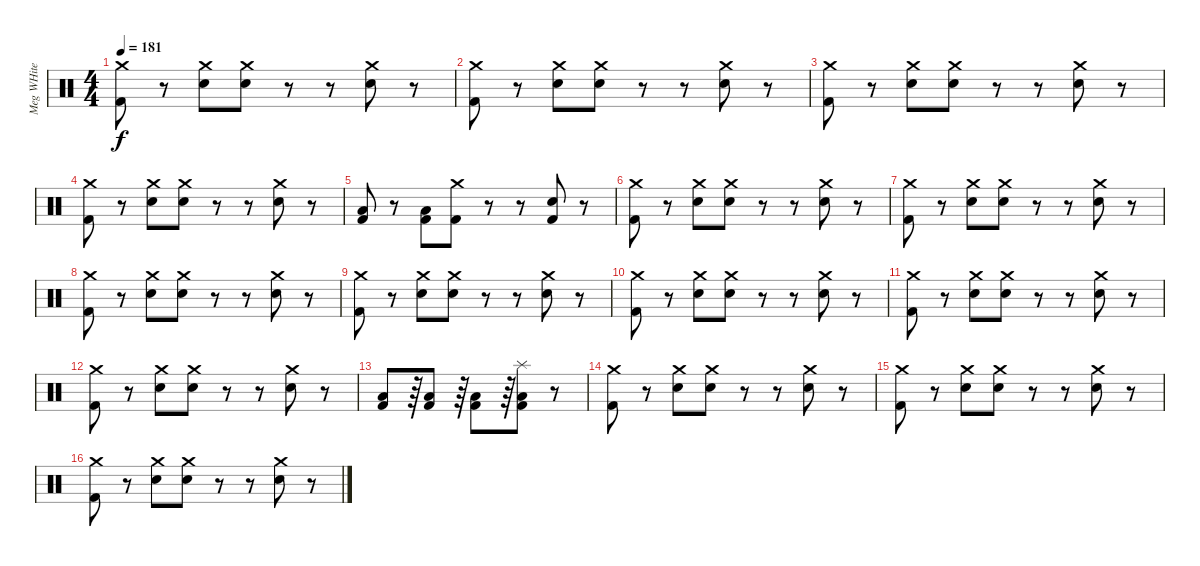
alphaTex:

\track ("Meg WHite" "Meg WHite") {instrument percussion}
\staff {score}
\articulation defaults
\ts (4 4)
\tempo 181
\clef neutral
\ks c
("Crash medium (hit)" "Kick (hit) 2").8{dy f} r.8 ("Crash medium (hit)" "Electric Snare (hit)").8 ("Crash medium (hit)" "Electric Snare (hit)").8 r.8 r.8 ("Crash medium (hit)" "Electric Snare (hit)").8 r.8 |
("Crash medium (hit)" "Kick (hit) 2").8 r.8 ("Crash medium (hit)" "Electric Snare (hit)").8 ("Crash medium (hit)" "Electric Snare (hit)").8 r.8 r.8 ("Crash medium (hit)" "Electric Snare (hit)").8 r.8 |
("Crash medium (hit)" "Kick (hit) 2").8 r.8 ("Crash medium (hit)" "Electric Snare (hit)").8 ("Crash medium (hit)" "Electric Snare (hit)").8 r.8 r.8 ("Crash medium (hit)" "Electric Snare (hit)").8 r.8 |
("Crash medium (hit)" "Kick (hit) 2").8 r.8 ("Crash medium (hit)" "Electric Snare (hit)").8 ("Crash medium (hit)" "Electric Snare (hit)").8 r.8 r.8 ("Crash medium (hit)" "Electric Snare (hit)").8 r.8 |
("Kick (hit) 2" "Low Floor Tom (hit)").8 r.8 ("Kick (hit) 2" "Low Floor Tom (hit)").8 ("Crash medium (hit)" "Kick (hit) 2").8 r.8 r.8 ("Electric Snare (hit)" "Kick (hit) 2").8 r.8 |
("Crash medium (hit)" "Kick (hit) 2").8 r.8 ("Crash medium (hit)" "Electric Snare (hit)").8 ("Crash medium (hit)" "Electric Snare (hit)").8 r.8 r.8 ("Crash medium (hit)" "Electric Snare (hit)").8 r.8 |
("Crash medium (hit)" "Kick (hit) 2").8 r.8 ("Crash medium (hit)" "Electric Snare (hit)").8 ("Crash medium (hit)" "Electric Snare (hit)").8 r.8 r.8 ("Crash medium (hit)" "Electric Snare (hit)").8 r.8 |
("Crash medium (hit)" "Kick (hit) 2").8 r.8 ("Crash medium (hit)" "Electric Snare (hit)").8 ("Crash medium (hit)" "Electric Snare (hit)").8 r.8 r.8 ("Crash medium (hit)" "Electric Snare (hit)").8 r.8 |
("Crash medium (hit)" "Kick (hit) 2").8 r.8 ("Crash medium (hit)" "Electric Snare (hit)").8 ("Crash medium (hit)" "Electric Snare (hit)").8 r.8 r.8 ("Crash medium (hit)" "Electric Snare (hit)").8 r.8 |
("Crash medium (hit)" "Kick (hit) 2").8 r.8 ("Crash medium (hit)" "Electric Snare (hit)").8 ("Crash medium (hit)" "Electric Snare (hit)").8 r.8 r.8 ("Crash medium (hit)" "Electric Snare (hit)").8 r.8 |
("Crash medium (hit)" "Kick (hit) 2").8 r.8 ("Crash medium (hit)" "Electric Snare (hit)").8 ("Crash medium (hit)" "Electric Snare (hit)").8 r.8 r.8 ("Crash medium (hit)" "Electric Snare (hit)").8 r.8 |
("Crash medium (hit)" "Kick (hit) 2").8 r.8 ("Crash medium (hit)" "Electric Snare (hit)").8 ("Crash medium (hit)" "Electric Snare (hit)").8 r.8 r.8 ("Crash medium (hit)" "Electric Snare (hit)").8 r.8 |
("Kick (hit) 2" "Low Floor Tom (hit)").8 r.64 ("Kick (hit) 2" "Low Floor Tom (hit)").8 r.64 ("Kick (hit) 2" "Low Floor Tom (hit)").8 r.64 ("Splash (hit)" "Kick (hit) 2" "Low Floor Tom (hit)").8 r.8 |
("Crash medium (hit)" "Kick (hit) 2").8 r.8 ("Crash medium (hit)" "Electric Snare (hit)").8 ("Crash medium (hit)" "Electric Snare (hit)").8 r.8 r.8 ("Crash medium (hit)" "Electric Snare (hit)").8 r.8 |
("Crash medium (hit)" "Kick (hit) 2").8 r.8 ("Crash medium (hit)" "Electric Snare (hit)").8 ("Crash medium (hit)" "Electric Snare (hit)").8 r.8 r.8 ("Crash medium (hit)" "Electric Snare (hit)").8 r.8 |
("Crash medium (hit)" "Kick (hit) 2").8 r.8 ("Crash medium (hit)" "Electric Snare (hit)").8 ("Crash medium (hit)" "Electric Snare (hit)").8 r.8 r.8 ("Crash medium (hit)" "Electric Snare (hit)").8 r.8
